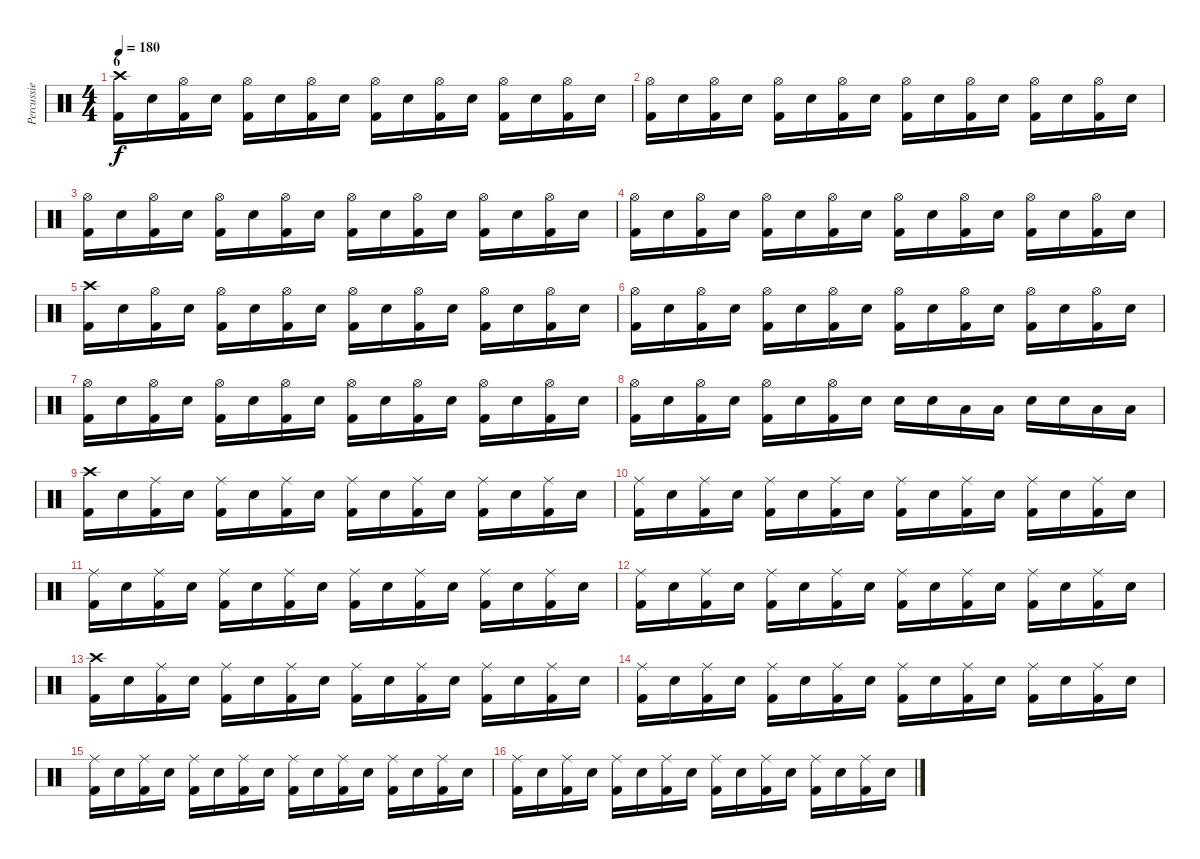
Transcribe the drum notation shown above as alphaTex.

\track ("Percussie" "Percussie") {instrument percussion}
\staff {score}
\articulation defaults
\ts (4 4)
\section ("" "6")
\tempo 180
\clef neutral
\ks c
("Crash high (hit)" "Kick (hit) 2").16{dy f} "Snare (hit) 2".16 ("Hi-Hat (open)" "Kick (hit) 2").16 "Snare (hit) 2".16 ("Hi-Hat (open)" "Kick (hit) 2").16 "Snare (hit) 2".16 ("Hi-Hat (open)" "Kick (hit) 2").16 "Snare (hit) 2".16 ("Hi-Hat (open)" "Kick (hit) 2").16 "Snare (hit) 2".16 ("Hi-Hat (open)" "Kick (hit) 2").16 "Snare (hit) 2".16 ("Hi-Hat (open)" "Kick (hit) 2").16 "Snare (hit) 2".16 ("Hi-Hat (open)" "Kick (hit) 2").16 "Snare (hit) 2".16 |
("Hi-Hat (open)" "Kick (hit) 2").16 "Snare (hit) 2".16 ("Hi-Hat (open)" "Kick (hit) 2").16 "Snare (hit) 2".16 ("Hi-Hat (open)" "Kick (hit) 2").16 "Snare (hit) 2".16 ("Hi-Hat (open)" "Kick (hit) 2").16 "Snare (hit) 2".16 ("Hi-Hat (open)" "Kick (hit) 2").16 "Snare (hit) 2".16 ("Hi-Hat (open)" "Kick (hit) 2").16 "Snare (hit) 2".16 ("Hi-Hat (open)" "Kick (hit) 2").16 "Snare (hit) 2".16 ("Hi-Hat (open)" "Kick (hit) 2").16 "Snare (hit) 2".16 |
("Hi-Hat (open)" "Kick (hit) 2").16 "Snare (hit) 2".16 ("Hi-Hat (open)" "Kick (hit) 2").16 "Snare (hit) 2".16 ("Hi-Hat (open)" "Kick (hit) 2").16 "Snare (hit) 2".16 ("Hi-Hat (open)" "Kick (hit) 2").16 "Snare (hit) 2".16 ("Hi-Hat (open)" "Kick (hit) 2").16 "Snare (hit) 2".16 ("Hi-Hat (open)" "Kick (hit) 2").16 "Snare (hit) 2".16 ("Hi-Hat (open)" "Kick (hit) 2").16 "Snare (hit) 2".16 ("Hi-Hat (open)" "Kick (hit) 2").16 "Snare (hit) 2".16 |
("Hi-Hat (open)" "Kick (hit) 2").16 "Snare (hit) 2".16 ("Hi-Hat (open)" "Kick (hit) 2").16 "Snare (hit) 2".16 ("Hi-Hat (open)" "Kick (hit) 2").16 "Snare (hit) 2".16 ("Hi-Hat (open)" "Kick (hit) 2").16 "Snare (hit) 2".16 ("Hi-Hat (open)" "Kick (hit) 2").16 "Snare (hit) 2".16 ("Hi-Hat (open)" "Kick (hit) 2").16 "Snare (hit) 2".16 ("Hi-Hat (open)" "Kick (hit) 2").16 "Snare (hit) 2".16 ("Hi-Hat (open)" "Kick (hit) 2").16 "Snare (hit) 2".16 |
("Crash high (hit)" "Kick (hit) 2").16 "Snare (hit) 2".16 ("Hi-Hat (open)" "Kick (hit) 2").16 "Snare (hit) 2".16 ("Hi-Hat (open)" "Kick (hit) 2").16 "Snare (hit) 2".16 ("Hi-Hat (open)" "Kick (hit) 2").16 "Snare (hit) 2".16 ("Hi-Hat (open)" "Kick (hit) 2").16 "Snare (hit) 2".16 ("Hi-Hat (open)" "Kick (hit) 2").16 "Snare (hit) 2".16 ("Hi-Hat (open)" "Kick (hit) 2").16 "Snare (hit) 2".16 ("Hi-Hat (open)" "Kick (hit) 2").16 "Snare (hit) 2".16 |
("Hi-Hat (open)" "Kick (hit) 2").16 "Snare (hit) 2".16 ("Hi-Hat (open)" "Kick (hit) 2").16 "Snare (hit) 2".16 ("Hi-Hat (open)" "Kick (hit) 2").16 "Snare (hit) 2".16 ("Hi-Hat (open)" "Kick (hit) 2").16 "Snare (hit) 2".16 ("Hi-Hat (open)" "Kick (hit) 2").16 "Snare (hit) 2".16 ("Hi-Hat (open)" "Kick (hit) 2").16 "Snare (hit) 2".16 ("Hi-Hat (open)" "Kick (hit) 2").16 "Snare (hit) 2".16 ("Hi-Hat (open)" "Kick (hit) 2").16 "Snare (hit) 2".16 |
("Hi-Hat (open)" "Kick (hit) 2").16 "Snare (hit) 2".16 ("Hi-Hat (open)" "Kick (hit) 2").16 "Snare (hit) 2".16 ("Hi-Hat (open)" "Kick (hit) 2").16 "Snare (hit) 2".16 ("Hi-Hat (open)" "Kick (hit) 2").16 "Snare (hit) 2".16 ("Hi-Hat (open)" "Kick (hit) 2").16 "Snare (hit) 2".16 ("Hi-Hat (open)" "Kick (hit) 2").16 "Snare (hit) 2".16 ("Hi-Hat (open)" "Kick (hit) 2").16 "Snare (hit) 2".16 ("Hi-Hat (open)" "Kick (hit) 2").16 "Snare (hit) 2".16 |
("Hi-Hat (open)" "Kick (hit) 2").16 "Snare (hit) 2".16 ("Hi-Hat (open)" "Kick (hit) 2").16 "Snare (hit) 2".16 ("Hi-Hat (open)" "Kick (hit) 2").16 "Snare (hit) 2".16 ("Hi-Hat (open)" "Kick (hit) 2").16 "Snare (hit) 2".16 "Snare (hit) 2".16 "Snare (hit) 2".16 "Low Tom (hit)".16 "Low Tom (hit)".16 "Snare (hit) 2".16 "Snare (hit) 2".16 "Low Tom (hit)".16 "Low Tom (hit)".16 |
("Crash high (hit)" "Kick (hit) 2").16 "Snare (hit) 2".16 ("Ride (middle)" "Kick (hit) 2").16 "Snare (hit) 2".16 ("Ride (middle)" "Kick (hit) 2").16 "Snare (hit) 2".16 ("Ride (middle)" "Kick (hit) 2").16 "Snare (hit) 2".16 ("Ride (middle)" "Kick (hit) 2").16 "Snare (hit) 2".16 ("Ride (middle)" "Kick (hit) 2").16 "Snare (hit) 2".16 ("Ride (middle)" "Kick (hit) 2").16 "Snare (hit) 2".16 ("Ride (middle)" "Kick (hit) 2").16 "Snare (hit) 2".16 |
("Ride (middle)" "Kick (hit) 2").16 "Snare (hit) 2".16 ("Ride (middle)" "Kick (hit) 2").16 "Snare (hit) 2".16 ("Ride (middle)" "Kick (hit) 2").16 "Snare (hit) 2".16 ("Ride (middle)" "Kick (hit) 2").16 "Snare (hit) 2".16 ("Ride (middle)" "Kick (hit) 2").16 "Snare (hit) 2".16 ("Ride (middle)" "Kick (hit) 2").16 "Snare (hit) 2".16 ("Ride (middle)" "Kick (hit) 2").16 "Snare (hit) 2".16 ("Ride (middle)" "Kick (hit) 2").16 "Snare (hit) 2".16 |
("Ride (middle)" "Kick (hit) 2").16 "Snare (hit) 2".16 ("Ride (middle)" "Kick (hit) 2").16 "Snare (hit) 2".16 ("Ride (middle)" "Kick (hit) 2").16 "Snare (hit) 2".16 ("Ride (middle)" "Kick (hit) 2").16 "Snare (hit) 2".16 ("Ride (middle)" "Kick (hit) 2").16 "Snare (hit) 2".16 ("Ride (middle)" "Kick (hit) 2").16 "Snare (hit) 2".16 ("Ride (middle)" "Kick (hit) 2").16 "Snare (hit) 2".16 ("Ride (middle)" "Kick (hit) 2").16 "Snare (hit) 2".16 |
("Ride (middle)" "Kick (hit) 2").16 "Snare (hit) 2".16 ("Ride (middle)" "Kick (hit) 2").16 "Snare (hit) 2".16 ("Ride (middle)" "Kick (hit) 2").16 "Snare (hit) 2".16 ("Ride (middle)" "Kick (hit) 2").16 "Snare (hit) 2".16 ("Ride (middle)" "Kick (hit) 2").16 "Snare (hit) 2".16 ("Ride (middle)" "Kick (hit) 2").16 "Snare (hit) 2".16 ("Ride (middle)" "Kick (hit) 2").16 "Snare (hit) 2".16 ("Ride (middle)" "Kick (hit) 2").16 "Snare (hit) 2".16 |
("Crash high (hit)" "Kick (hit) 2").16 "Snare (hit) 2".16 ("Ride (middle)" "Kick (hit) 2").16 "Snare (hit) 2".16 ("Ride (middle)" "Kick (hit) 2").16 "Snare (hit) 2".16 ("Ride (middle)" "Kick (hit) 2").16 "Snare (hit) 2".16 ("Ride (middle)" "Kick (hit) 2").16 "Snare (hit) 2".16 ("Ride (middle)" "Kick (hit) 2").16 "Snare (hit) 2".16 ("Ride (middle)" "Kick (hit) 2").16 "Snare (hit) 2".16 ("Ride (middle)" "Kick (hit) 2").16 "Snare (hit) 2".16 |
("Ride (middle)" "Kick (hit) 2").16 "Snare (hit) 2".16 ("Ride (middle)" "Kick (hit) 2").16 "Snare (hit) 2".16 ("Ride (middle)" "Kick (hit) 2").16 "Snare (hit) 2".16 ("Ride (middle)" "Kick (hit) 2").16 "Snare (hit) 2".16 ("Ride (middle)" "Kick (hit) 2").16 "Snare (hit) 2".16 ("Ride (middle)" "Kick (hit) 2").16 "Snare (hit) 2".16 ("Ride (middle)" "Kick (hit) 2").16 "Snare (hit) 2".16 ("Ride (middle)" "Kick (hit) 2").16 "Snare (hit) 2".16 |
("Ride (middle)" "Kick (hit) 2").16 "Snare (hit) 2".16 ("Ride (middle)" "Kick (hit) 2").16 "Snare (hit) 2".16 ("Ride (middle)" "Kick (hit) 2").16 "Snare (hit) 2".16 ("Ride (middle)" "Kick (hit) 2").16 "Snare (hit) 2".16 ("Ride (middle)" "Kick (hit) 2").16 "Snare (hit) 2".16 ("Ride (middle)" "Kick (hit) 2").16 "Snare (hit) 2".16 ("Ride (middle)" "Kick (hit) 2").16 "Snare (hit) 2".16 ("Ride (middle)" "Kick (hit) 2").16 "Snare (hit) 2".16 |
("Ride (middle)" "Kick (hit) 2").16 "Snare (hit) 2".16 ("Ride (middle)" "Kick (hit) 2").16 "Snare (hit) 2".16 ("Ride (middle)" "Kick (hit) 2").16 "Snare (hit) 2".16 ("Ride (middle)" "Kick (hit) 2").16 "Snare (hit) 2".16 ("Ride (middle)" "Kick (hit) 2").16 "Snare (hit) 2".16 ("Ride (middle)" "Kick (hit) 2").16 "Snare (hit) 2".16 ("Ride (middle)" "Kick (hit) 2").16 "Snare (hit) 2".16 ("Ride (middle)" "Kick (hit) 2").16 "Snare (hit) 2".16
